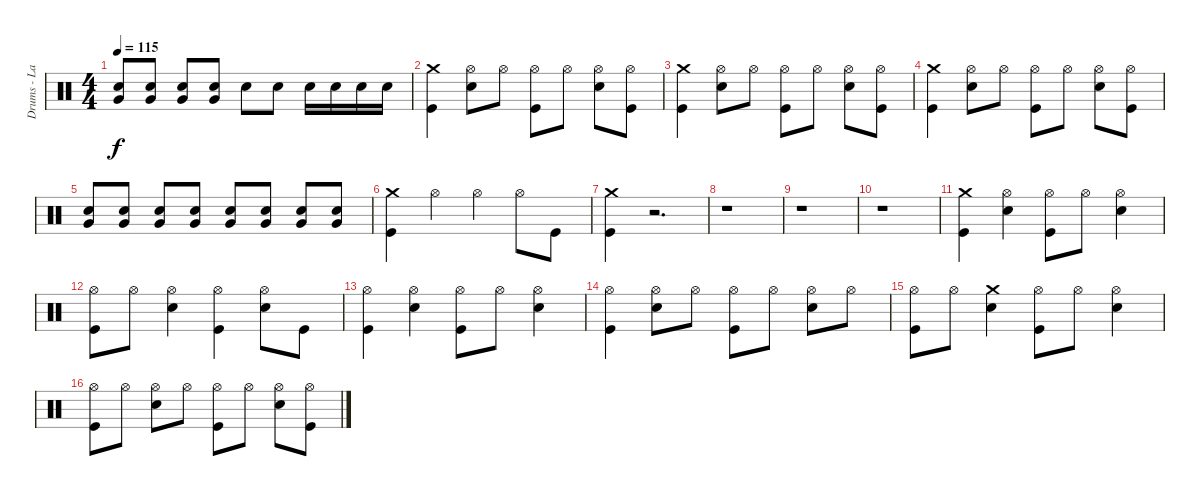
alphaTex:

\track ("Drums - Lars Ulrich" "Drums - La") {instrument percussion}
\staff {score}
\articulation defaults
\ts (4 4)
\tempo 115
\clef neutral
\ks c
("Electric Snare (hit)" "Very Low Tom (hit)").8{dy f} ("Electric Snare (hit)" "Very Low Tom (hit)").8 ("Electric Snare (hit)" "Very Low Tom (hit)").8 ("Electric Snare (hit)" "Very Low Tom (hit)").8 "Electric Snare (hit)".8 "Electric Snare (hit)".8 "Electric Snare (hit)".16 "Electric Snare (hit)".16 "Electric Snare (hit)".16 "Electric Snare (hit)".16 |
("Kick (hit)" "Crash medium (hit)").4 ("Electric Snare (hit)" "Hi-Hat (open)").8 "Hi-Hat (open)".8 ("Kick (hit)" "Hi-Hat (open)").8 "Hi-Hat (open)".8 ("Electric Snare (hit)" "Hi-Hat (open)").8 ("Kick (hit)" "Hi-Hat (open)").8 |
("Kick (hit)" "Crash medium (hit)").4 ("Electric Snare (hit)" "Hi-Hat (open)").8 "Hi-Hat (open)".8 ("Kick (hit)" "Hi-Hat (open)").8 "Hi-Hat (open)".8 ("Electric Snare (hit)" "Hi-Hat (open)").8 ("Kick (hit)" "Hi-Hat (open)").8 |
("Kick (hit)" "Crash medium (hit)").4 ("Electric Snare (hit)" "Hi-Hat (open)").8 "Hi-Hat (open)".8 ("Kick (hit)" "Hi-Hat (open)").8 "Hi-Hat (open)".8 ("Electric Snare (hit)" "Hi-Hat (open)").8 ("Kick (hit)" "Hi-Hat (open)").8 |
("Electric Snare (hit)" "Very Low Tom (hit)").8 ("Electric Snare (hit)" "Very Low Tom (hit)").8 ("Electric Snare (hit)" "Very Low Tom (hit)").8 ("Electric Snare (hit)" "Very Low Tom (hit)").8 ("Electric Snare (hit)" "Very Low Tom (hit)").8 ("Electric Snare (hit)" "Very Low Tom (hit)").8 ("Electric Snare (hit)" "Very Low Tom (hit)").8 ("Electric Snare (hit)" "Very Low Tom (hit)").8 |
("Kick (hit)" "Crash medium (hit)").4 "Hi-Hat (open)".4 "Hi-Hat (open)".4 "Hi-Hat (open)".8 "Kick (hit)".8 |
("Kick (hit)" "Crash medium (hit)").4 r.2{d} |
r.1 |
r.1 |
r.1 |
("Kick (hit)" "Crash medium (hit)").4 ("Electric Snare (hit)" "Hi-Hat (open)").4 ("Kick (hit)" "Hi-Hat (open)").8 "Hi-Hat (open)".8 ("Electric Snare (hit)" "Hi-Hat (open)").4 |
("Kick (hit)" "Hi-Hat (open)").8 "Hi-Hat (open)".8 ("Electric Snare (hit)" "Hi-Hat (open)").4 ("Kick (hit)" "Hi-Hat (open)").4 ("Electric Snare (hit)" "Hi-Hat (open)").8 "Kick (hit)".8 |
("Kick (hit)" "Hi-Hat (open)").4 ("Electric Snare (hit)" "Hi-Hat (open)").4 ("Kick (hit)" "Hi-Hat (open)").8 "Hi-Hat (open)".8 ("Electric Snare (hit)" "Hi-Hat (open)").4 |
("Kick (hit)" "Hi-Hat (open)").4 ("Electric Snare (hit)" "Hi-Hat (open)").8 "Hi-Hat (open)".8 ("Kick (hit)" "Hi-Hat (open)").8 "Hi-Hat (open)".8 ("Electric Snare (hit)" "Hi-Hat (open)").8 "Hi-Hat (open)".8 |
("Kick (hit)" "Hi-Hat (open)").8 "Hi-Hat (open)".8 ("Electric Snare (hit)" "Crash medium (hit)").4 ("Kick (hit)" "Hi-Hat (open)").8 "Hi-Hat (open)".8 ("Electric Snare (hit)" "Hi-Hat (open)").4 |
("Kick (hit)" "Hi-Hat (open)").8 "Hi-Hat (open)".8 ("Electric Snare (hit)" "Hi-Hat (open)").8 "Hi-Hat (open)".8 ("Kick (hit)" "Hi-Hat (open)").8 "Hi-Hat (open)".8 ("Electric Snare (hit)" "Hi-Hat (open)").8 ("Kick (hit)" "Hi-Hat (open)").8
